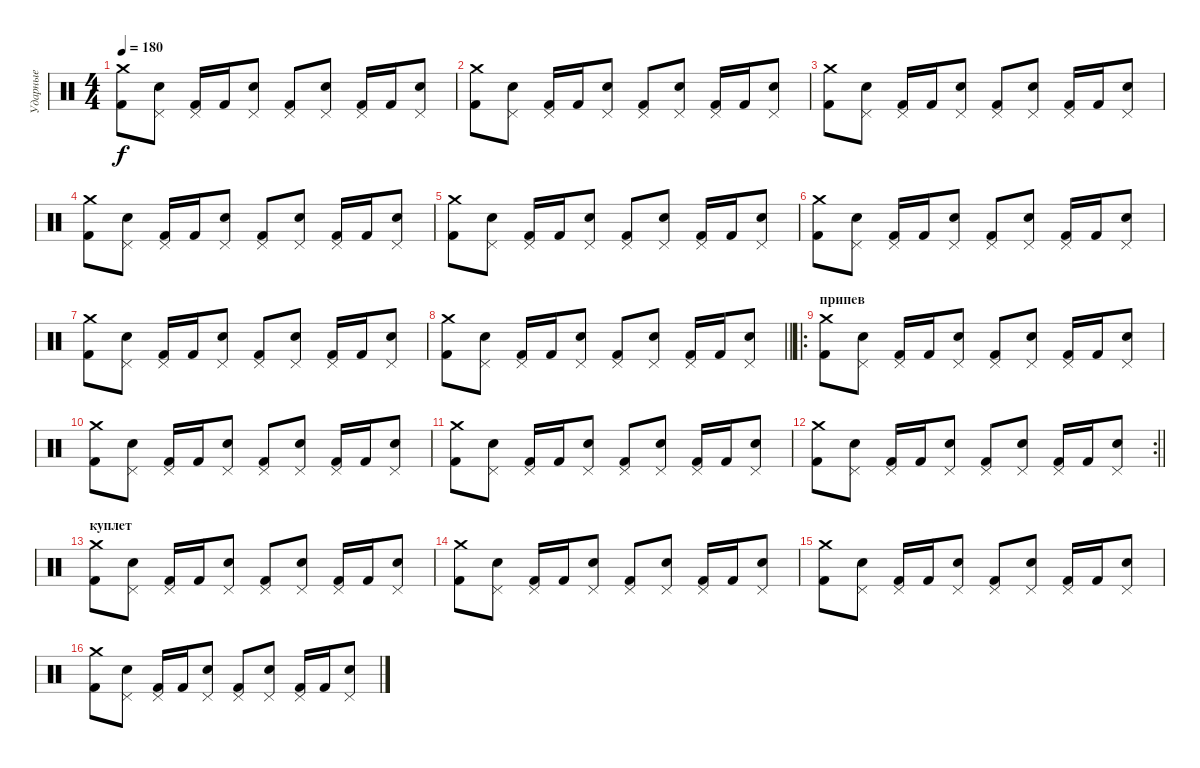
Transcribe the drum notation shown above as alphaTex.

\track ("Ударные" "Ударные") {instrument percussion}
\staff {score}
\articulation defaults
\ts (4 4)
\tempo 180
\clef neutral
\ks c
("Crash medium (hit)" "Kick (hit) 2").8{dy f} ("Pedal Hi-Hat (hit)" "Electric Snare (hit)").8 ("Pedal Hi-Hat (hit)" "Kick (hit) 2").16 "Kick (hit) 2".16 ("Pedal Hi-Hat (hit)" "Electric Snare (hit)").8 ("Pedal Hi-Hat (hit)" "Kick (hit) 2").8 ("Pedal Hi-Hat (hit)" "Electric Snare (hit)").8 ("Pedal Hi-Hat (hit)" "Kick (hit) 2").16 "Kick (hit) 2".16 ("Pedal Hi-Hat (hit)" "Electric Snare (hit)").8 |
("Crash medium (hit)" "Kick (hit) 2").8 ("Pedal Hi-Hat (hit)" "Electric Snare (hit)").8 ("Pedal Hi-Hat (hit)" "Kick (hit) 2").16 "Kick (hit) 2".16 ("Pedal Hi-Hat (hit)" "Electric Snare (hit)").8 ("Pedal Hi-Hat (hit)" "Kick (hit) 2").8 ("Pedal Hi-Hat (hit)" "Electric Snare (hit)").8 ("Pedal Hi-Hat (hit)" "Kick (hit) 2").16 "Kick (hit) 2".16 ("Pedal Hi-Hat (hit)" "Electric Snare (hit)").8 |
("Crash medium (hit)" "Kick (hit) 2").8 ("Pedal Hi-Hat (hit)" "Electric Snare (hit)").8 ("Pedal Hi-Hat (hit)" "Kick (hit) 2").16 "Kick (hit) 2".16 ("Pedal Hi-Hat (hit)" "Electric Snare (hit)").8 ("Pedal Hi-Hat (hit)" "Kick (hit) 2").8 ("Pedal Hi-Hat (hit)" "Electric Snare (hit)").8 ("Pedal Hi-Hat (hit)" "Kick (hit) 2").16 "Kick (hit) 2".16 ("Pedal Hi-Hat (hit)" "Electric Snare (hit)").8 |
("Crash medium (hit)" "Kick (hit) 2").8 ("Pedal Hi-Hat (hit)" "Electric Snare (hit)").8 ("Pedal Hi-Hat (hit)" "Kick (hit) 2").16 "Kick (hit) 2".16 ("Pedal Hi-Hat (hit)" "Electric Snare (hit)").8 ("Pedal Hi-Hat (hit)" "Kick (hit) 2").8 ("Pedal Hi-Hat (hit)" "Electric Snare (hit)").8 ("Pedal Hi-Hat (hit)" "Kick (hit) 2").16 "Kick (hit) 2".16 ("Pedal Hi-Hat (hit)" "Electric Snare (hit)").8 |
("Crash medium (hit)" "Kick (hit) 2").8 ("Pedal Hi-Hat (hit)" "Electric Snare (hit)").8 ("Pedal Hi-Hat (hit)" "Kick (hit) 2").16 "Kick (hit) 2".16 ("Pedal Hi-Hat (hit)" "Electric Snare (hit)").8 ("Pedal Hi-Hat (hit)" "Kick (hit) 2").8 ("Pedal Hi-Hat (hit)" "Electric Snare (hit)").8 ("Pedal Hi-Hat (hit)" "Kick (hit) 2").16 "Kick (hit) 2".16 ("Pedal Hi-Hat (hit)" "Electric Snare (hit)").8 |
("Crash medium (hit)" "Kick (hit) 2").8 ("Pedal Hi-Hat (hit)" "Electric Snare (hit)").8 ("Pedal Hi-Hat (hit)" "Kick (hit) 2").16 "Kick (hit) 2".16 ("Pedal Hi-Hat (hit)" "Electric Snare (hit)").8 ("Pedal Hi-Hat (hit)" "Kick (hit) 2").8 ("Pedal Hi-Hat (hit)" "Electric Snare (hit)").8 ("Pedal Hi-Hat (hit)" "Kick (hit) 2").16 "Kick (hit) 2".16 ("Pedal Hi-Hat (hit)" "Electric Snare (hit)").8 |
("Crash medium (hit)" "Kick (hit) 2").8 ("Pedal Hi-Hat (hit)" "Electric Snare (hit)").8 ("Pedal Hi-Hat (hit)" "Kick (hit) 2").16 "Kick (hit) 2".16 ("Pedal Hi-Hat (hit)" "Electric Snare (hit)").8 ("Pedal Hi-Hat (hit)" "Kick (hit) 2").8 ("Pedal Hi-Hat (hit)" "Electric Snare (hit)").8 ("Pedal Hi-Hat (hit)" "Kick (hit) 2").16 "Kick (hit) 2".16 ("Pedal Hi-Hat (hit)" "Electric Snare (hit)").8 |
\barLineRight lightlight
("Crash medium (hit)" "Kick (hit) 2").8 ("Pedal Hi-Hat (hit)" "Electric Snare (hit)").8 ("Pedal Hi-Hat (hit)" "Kick (hit) 2").16 "Kick (hit) 2".16 ("Pedal Hi-Hat (hit)" "Electric Snare (hit)").8 ("Pedal Hi-Hat (hit)" "Kick (hit) 2").8 ("Pedal Hi-Hat (hit)" "Electric Snare (hit)").8 ("Pedal Hi-Hat (hit)" "Kick (hit) 2").16 "Kick (hit) 2".16 ("Pedal Hi-Hat (hit)" "Electric Snare (hit)").8 |
\ro
\section ("" "припев")
("Crash medium (hit)" "Kick (hit) 2").8 ("Pedal Hi-Hat (hit)" "Electric Snare (hit)").8 ("Pedal Hi-Hat (hit)" "Kick (hit) 2").16 "Kick (hit) 2".16 ("Pedal Hi-Hat (hit)" "Electric Snare (hit)").8 ("Pedal Hi-Hat (hit)" "Kick (hit) 2").8 ("Pedal Hi-Hat (hit)" "Electric Snare (hit)").8 ("Pedal Hi-Hat (hit)" "Kick (hit) 2").16 "Kick (hit) 2".16 ("Pedal Hi-Hat (hit)" "Electric Snare (hit)").8 |
("Crash medium (hit)" "Kick (hit) 2").8 ("Pedal Hi-Hat (hit)" "Electric Snare (hit)").8 ("Pedal Hi-Hat (hit)" "Kick (hit) 2").16 "Kick (hit) 2".16 ("Pedal Hi-Hat (hit)" "Electric Snare (hit)").8 ("Pedal Hi-Hat (hit)" "Kick (hit) 2").8 ("Pedal Hi-Hat (hit)" "Electric Snare (hit)").8 ("Pedal Hi-Hat (hit)" "Kick (hit) 2").16 "Kick (hit) 2".16 ("Pedal Hi-Hat (hit)" "Electric Snare (hit)").8 |
("Crash medium (hit)" "Kick (hit) 2").8 ("Pedal Hi-Hat (hit)" "Electric Snare (hit)").8 ("Pedal Hi-Hat (hit)" "Kick (hit) 2").16 "Kick (hit) 2".16 ("Pedal Hi-Hat (hit)" "Electric Snare (hit)").8 ("Pedal Hi-Hat (hit)" "Kick (hit) 2").8 ("Pedal Hi-Hat (hit)" "Electric Snare (hit)").8 ("Pedal Hi-Hat (hit)" "Kick (hit) 2").16 "Kick (hit) 2".16 ("Pedal Hi-Hat (hit)" "Electric Snare (hit)").8 |
\rc 2
\barLineRight lightlight
("Crash medium (hit)" "Kick (hit) 2").8 ("Pedal Hi-Hat (hit)" "Electric Snare (hit)").8 ("Pedal Hi-Hat (hit)" "Kick (hit) 2").16 "Kick (hit) 2".16 ("Pedal Hi-Hat (hit)" "Electric Snare (hit)").8 ("Pedal Hi-Hat (hit)" "Kick (hit) 2").8 ("Pedal Hi-Hat (hit)" "Electric Snare (hit)").8 ("Pedal Hi-Hat (hit)" "Kick (hit) 2").16 "Kick (hit) 2".16 ("Pedal Hi-Hat (hit)" "Electric Snare (hit)").8 |
\section ("" "куплет")
("Crash medium (hit)" "Kick (hit) 2").8 ("Pedal Hi-Hat (hit)" "Electric Snare (hit)").8 ("Pedal Hi-Hat (hit)" "Kick (hit) 2").16 "Kick (hit) 2".16 ("Pedal Hi-Hat (hit)" "Electric Snare (hit)").8 ("Pedal Hi-Hat (hit)" "Kick (hit) 2").8 ("Pedal Hi-Hat (hit)" "Electric Snare (hit)").8 ("Pedal Hi-Hat (hit)" "Kick (hit) 2").16 "Kick (hit) 2".16 ("Pedal Hi-Hat (hit)" "Electric Snare (hit)").8 |
("Crash medium (hit)" "Kick (hit) 2").8 ("Pedal Hi-Hat (hit)" "Electric Snare (hit)").8 ("Pedal Hi-Hat (hit)" "Kick (hit) 2").16 "Kick (hit) 2".16 ("Pedal Hi-Hat (hit)" "Electric Snare (hit)").8 ("Pedal Hi-Hat (hit)" "Kick (hit) 2").8 ("Pedal Hi-Hat (hit)" "Electric Snare (hit)").8 ("Pedal Hi-Hat (hit)" "Kick (hit) 2").16 "Kick (hit) 2".16 ("Pedal Hi-Hat (hit)" "Electric Snare (hit)").8 |
("Crash medium (hit)" "Kick (hit) 2").8 ("Pedal Hi-Hat (hit)" "Electric Snare (hit)").8 ("Pedal Hi-Hat (hit)" "Kick (hit) 2").16 "Kick (hit) 2".16 ("Pedal Hi-Hat (hit)" "Electric Snare (hit)").8 ("Pedal Hi-Hat (hit)" "Kick (hit) 2").8 ("Pedal Hi-Hat (hit)" "Electric Snare (hit)").8 ("Pedal Hi-Hat (hit)" "Kick (hit) 2").16 "Kick (hit) 2".16 ("Pedal Hi-Hat (hit)" "Electric Snare (hit)").8 |
("Crash medium (hit)" "Kick (hit) 2").8 ("Pedal Hi-Hat (hit)" "Electric Snare (hit)").8 ("Pedal Hi-Hat (hit)" "Kick (hit) 2").16 "Kick (hit) 2".16 ("Pedal Hi-Hat (hit)" "Electric Snare (hit)").8 ("Pedal Hi-Hat (hit)" "Kick (hit) 2").8 ("Pedal Hi-Hat (hit)" "Electric Snare (hit)").8 ("Pedal Hi-Hat (hit)" "Kick (hit) 2").16 "Kick (hit) 2".16 ("Pedal Hi-Hat (hit)" "Electric Snare (hit)").8
